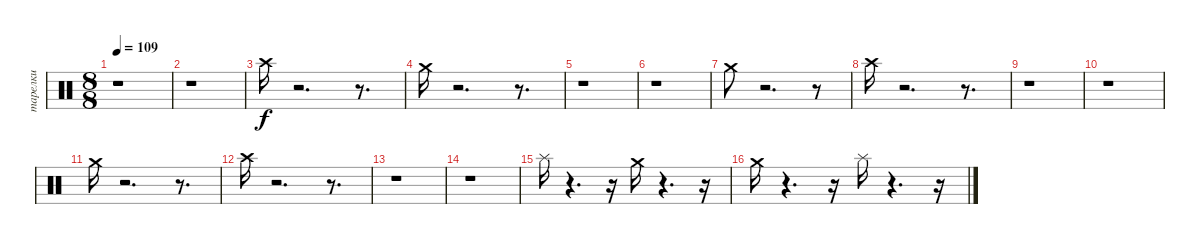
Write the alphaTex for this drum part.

\track ("тарелки" "тарелки") {instrument percussion}
\staff {score}
\articulation defaults
\ts (8 8)
\tempo 109
\clef neutral
\ks c
r.1{dy f} |
r.1 |
"Crash high (hit)".16 r.2{d} r.8{d} |
"Crash medium (hit)".16 r.2{d} r.8{d} |
r.1 |
r.1 |
"Crash medium (hit)".8 r.2{d} r.8 |
"Crash high (hit)".16 r.2{d} r.8{d} |
r.1 |
r.1 |
"Crash medium (hit)".16 r.2{d} r.8{d} |
"Crash high (hit)".16 r.2{d} r.8{d} |
r.1 |
r.1 |
"Splash (hit)".16 r.4{d} r.16 "Crash medium (hit)".16 r.4{d} r.16 |
"Crash medium (hit)".16 r.4{d} r.16 "Splash (hit)".16 r.4{d} r.16
